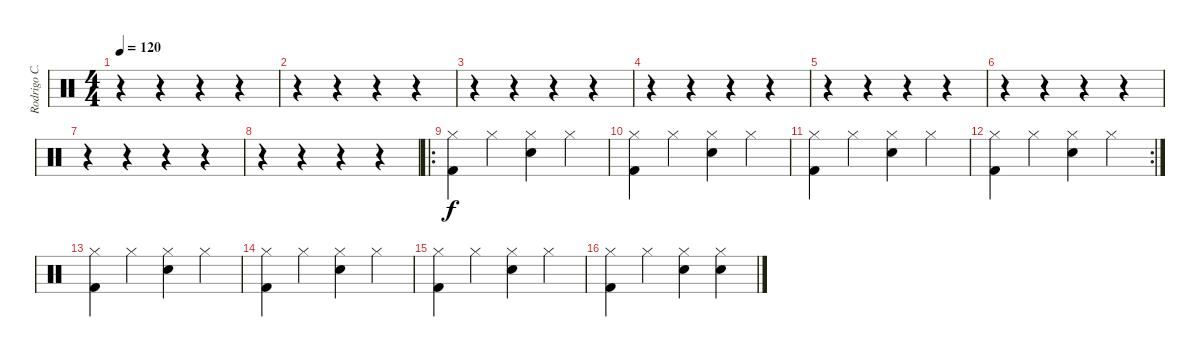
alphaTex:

\track ("Rodrigo C. (Bateria)" "Rodrigo C.") {instrument percussion}
\staff {score}
\articulation defaults
\ts (4 4)
\tempo 120
\clef neutral
\ks c
r.4{dy f} r.4 r.4 r.4 |
r.4 r.4 r.4 r.4 |
r.4 r.4 r.4 r.4 |
r.4 r.4 r.4 r.4 |
r.4 r.4 r.4 r.4 |
r.4 r.4 r.4 r.4 |
r.4 r.4 r.4 r.4 |
r.4 r.4 r.4 r.4 |
\ro
("Hi-Hat (closed)" "Kick (hit) 2").4 "Hi-Hat (closed)".4 ("Hi-Hat (closed)" "Electric Snare (hit)").4 "Hi-Hat (closed)".4 |
("Hi-Hat (closed)" "Kick (hit) 2").4 "Hi-Hat (closed)".4 ("Hi-Hat (closed)" "Electric Snare (hit)").4 "Hi-Hat (closed)".4 |
("Hi-Hat (closed)" "Kick (hit) 2").4 "Hi-Hat (closed)".4 ("Hi-Hat (closed)" "Electric Snare (hit)").4 "Hi-Hat (closed)".4 |
\rc 2
("Hi-Hat (closed)" "Kick (hit) 2").4 "Hi-Hat (closed)".4 ("Hi-Hat (closed)" "Electric Snare (hit)").4 "Hi-Hat (closed)".4 |
("Hi-Hat (closed)" "Kick (hit) 2").4 "Hi-Hat (closed)".4 ("Hi-Hat (closed)" "Electric Snare (hit)").4 "Hi-Hat (closed)".4 |
("Hi-Hat (closed)" "Kick (hit) 2").4 "Hi-Hat (closed)".4 ("Hi-Hat (closed)" "Electric Snare (hit)").4 "Hi-Hat (closed)".4 |
("Hi-Hat (closed)" "Kick (hit) 2").4 "Hi-Hat (closed)".4 ("Hi-Hat (closed)" "Electric Snare (hit)").4 "Hi-Hat (closed)".4 |
("Hi-Hat (closed)" "Kick (hit) 2").4 "Hi-Hat (closed)".4 ("Hi-Hat (closed)" "Electric Snare (hit)").4 ("Hi-Hat (closed)" "Electric Snare (hit)").4
